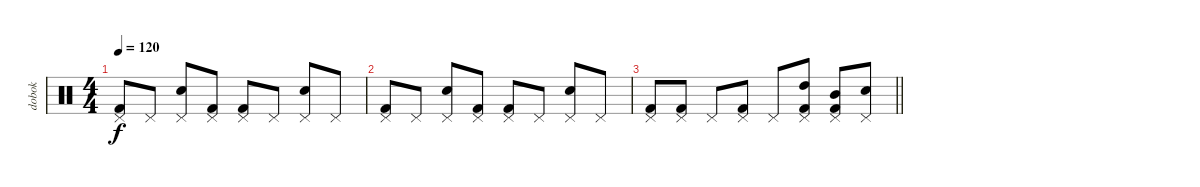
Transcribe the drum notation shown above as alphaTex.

\track ("dobok" "dobok") {instrument percussion}
\staff {score}
\articulation defaults
\ts (4 4)
\tempo 120
\clef neutral
\ks c
("Pedal Hi-Hat (hit)" "Kick (hit) 2").8{dy f} "Pedal Hi-Hat (hit)".8 ("Pedal Hi-Hat (hit)" "Snare (hit) 2").8 ("Pedal Hi-Hat (hit)" "Kick (hit) 2").8 ("Pedal Hi-Hat (hit)" "Kick (hit) 2").8 "Pedal Hi-Hat (hit)".8 ("Pedal Hi-Hat (hit)" "Snare (hit) 2").8 "Pedal Hi-Hat (hit)".8 |
("Pedal Hi-Hat (hit)" "Kick (hit) 2").8 "Pedal Hi-Hat (hit)".8 ("Pedal Hi-Hat (hit)" "Snare (hit) 2").8 ("Pedal Hi-Hat (hit)" "Kick (hit) 2").8 ("Pedal Hi-Hat (hit)" "Kick (hit) 2").8 "Pedal Hi-Hat (hit)".8 ("Pedal Hi-Hat (hit)" "Snare (hit) 2").8 "Pedal Hi-Hat (hit)".8 |
\barLineRight lightlight
("Pedal Hi-Hat (hit)" "Kick (hit) 2").8 ("Pedal Hi-Hat (hit)" "Kick (hit) 2").8 "Pedal Hi-Hat (hit)".8 ("Pedal Hi-Hat (hit)" "Kick (hit) 2").8 "Pedal Hi-Hat (hit)".8 ("High Tom (hit)" "Pedal Hi-Hat (hit)" "Kick (hit) 2").8 ("Mid Tom (hit)" "Pedal Hi-Hat (hit)" "Kick (hit) 2").8 ("Pedal Hi-Hat (hit)" "Snare (hit) 2").8
